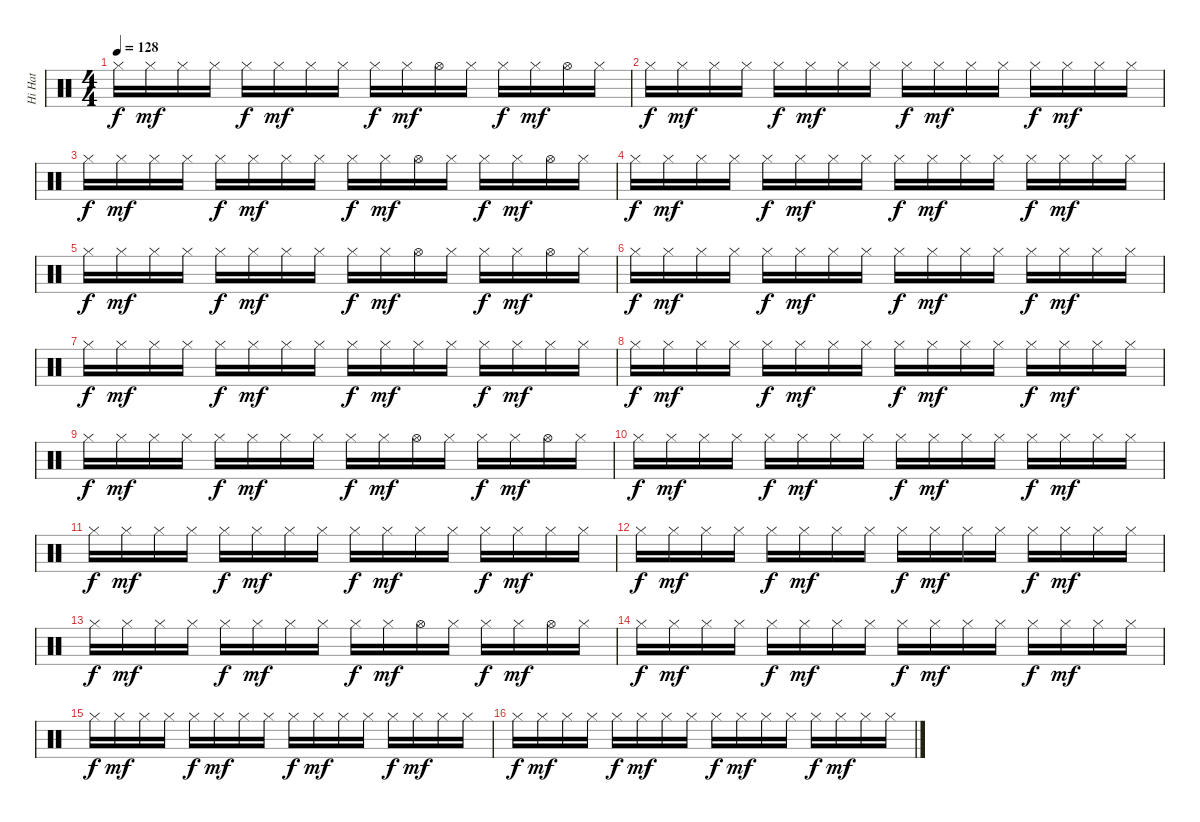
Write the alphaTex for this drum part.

\track ("Hi Hat" "Hi Hat") {instrument percussion}
\staff {score}
\articulation defaults
\ts (4 4)
\tempo 128
\clef neutral
\ks c "Hi-Hat (closed)".16{dy f} "Hi-Hat (closed)".16{dy mf} "Hi-Hat (closed)".16 "Hi-Hat (closed)".16 "Hi-Hat (closed)".16{dy f} "Hi-Hat (closed)".16{dy mf} "Hi-Hat (closed)".16 "Hi-Hat (closed)".16 "Hi-Hat (closed)".16{dy f} "Hi-Hat (closed)".16{dy mf} "Hi-Hat (open)".16 "Hi-Hat (closed)".16 "Hi-Hat (closed)".16{dy f} "Hi-Hat (closed)".16{dy mf} "Hi-Hat (open)".16 "Hi-Hat (closed)".16
|
"Hi-Hat (closed)".16{dy f} "Hi-Hat (closed)".16{dy mf} "Hi-Hat (closed)".16 "Hi-Hat (closed)".16 "Hi-Hat (closed)".16{dy f} "Hi-Hat (closed)".16{dy mf} "Hi-Hat (closed)".16 "Hi-Hat (closed)".16 "Hi-Hat (closed)".16{dy f} "Hi-Hat (closed)".16{dy mf} "Hi-Hat (closed)".16 "Hi-Hat (closed)".16 "Hi-Hat (closed)".16{dy f} "Hi-Hat (closed)".16{dy mf} "Hi-Hat (closed)".16 "Hi-Hat (closed)".16 |
"Hi-Hat (closed)".16{dy f} "Hi-Hat (closed)".16{dy mf} "Hi-Hat (closed)".16 "Hi-Hat (closed)".16 "Hi-Hat (closed)".16{dy f} "Hi-Hat (closed)".16{dy mf} "Hi-Hat (closed)".16 "Hi-Hat (closed)".16 "Hi-Hat (closed)".16{dy f} "Hi-Hat (closed)".16{dy mf} "Hi-Hat (open)".16 "Hi-Hat (closed)".16 "Hi-Hat (closed)".16{dy f} "Hi-Hat (closed)".16{dy mf} "Hi-Hat (open)".16 "Hi-Hat (closed)".16 |
"Hi-Hat (closed)".16{dy f} "Hi-Hat (closed)".16{dy mf} "Hi-Hat (closed)".16 "Hi-Hat (closed)".16 "Hi-Hat (closed)".16{dy f} "Hi-Hat (closed)".16{dy mf} "Hi-Hat (closed)".16 "Hi-Hat (closed)".16 "Hi-Hat (closed)".16{dy f} "Hi-Hat (closed)".16{dy mf} "Hi-Hat (closed)".16 "Hi-Hat (closed)".16 "Hi-Hat (closed)".16{dy f} "Hi-Hat (closed)".16{dy mf} "Hi-Hat (closed)".16 "Hi-Hat (closed)".16 |
"Hi-Hat (closed)".16{dy f} "Hi-Hat (closed)".16{dy mf} "Hi-Hat (closed)".16 "Hi-Hat (closed)".16 "Hi-Hat (closed)".16{dy f} "Hi-Hat (closed)".16{dy mf} "Hi-Hat (closed)".16 "Hi-Hat (closed)".16 "Hi-Hat (closed)".16{dy f} "Hi-Hat (closed)".16{dy mf} "Hi-Hat (open)".16 "Hi-Hat (closed)".16 "Hi-Hat (closed)".16{dy f} "Hi-Hat (closed)".16{dy mf} "Hi-Hat (open)".16 "Hi-Hat (closed)".16 |
"Hi-Hat (closed)".16{dy f} "Hi-Hat (closed)".16{dy mf} "Hi-Hat (closed)".16 "Hi-Hat (closed)".16 "Hi-Hat (closed)".16{dy f} "Hi-Hat (closed)".16{dy mf} "Hi-Hat (closed)".16 "Hi-Hat (closed)".16 "Hi-Hat (closed)".16{dy f} "Hi-Hat (closed)".16{dy mf} "Hi-Hat (closed)".16 "Hi-Hat (closed)".16 "Hi-Hat (closed)".16{dy f} "Hi-Hat (closed)".16{dy mf} "Hi-Hat (closed)".16 "Hi-Hat (closed)".16 |
"Hi-Hat (closed)".16{dy f} "Hi-Hat (closed)".16{dy mf} "Hi-Hat (closed)".16 "Hi-Hat (closed)".16 "Hi-Hat (closed)".16{dy f} "Hi-Hat (closed)".16{dy mf} "Hi-Hat (closed)".16 "Hi-Hat (closed)".16 "Hi-Hat (closed)".16{dy f} "Hi-Hat (closed)".16{dy mf} "Hi-Hat (closed)".16 "Hi-Hat (closed)".16 "Hi-Hat (closed)".16{dy f} "Hi-Hat (closed)".16{dy mf} "Hi-Hat (closed)".16 "Hi-Hat (closed)".16 |
"Hi-Hat (closed)".16{dy f} "Hi-Hat (closed)".16{dy mf} "Hi-Hat (closed)".16 "Hi-Hat (closed)".16 "Hi-Hat (closed)".16{dy f} "Hi-Hat (closed)".16{dy mf} "Hi-Hat (closed)".16 "Hi-Hat (closed)".16 "Hi-Hat (closed)".16{dy f} "Hi-Hat (closed)".16{dy mf} "Hi-Hat (closed)".16 "Hi-Hat (closed)".16 "Hi-Hat (closed)".16{dy f} "Hi-Hat (closed)".16{dy mf} "Hi-Hat (closed)".16 "Hi-Hat (closed)".16 |
"Hi-Hat (closed)".16{dy f} "Hi-Hat (closed)".16{dy mf} "Hi-Hat (closed)".16 "Hi-Hat (closed)".16 "Hi-Hat (closed)".16{dy f} "Hi-Hat (closed)".16{dy mf} "Hi-Hat (closed)".16 "Hi-Hat (closed)".16 "Hi-Hat (closed)".16{dy f} "Hi-Hat (closed)".16{dy mf} "Hi-Hat (open)".16 "Hi-Hat (closed)".16 "Hi-Hat (closed)".16{dy f} "Hi-Hat (closed)".16{dy mf} "Hi-Hat (open)".16 "Hi-Hat (closed)".16 |
"Hi-Hat (closed)".16{dy f} "Hi-Hat (closed)".16{dy mf} "Hi-Hat (closed)".16 "Hi-Hat (closed)".16 "Hi-Hat (closed)".16{dy f} "Hi-Hat (closed)".16{dy mf} "Hi-Hat (closed)".16 "Hi-Hat (closed)".16 "Hi-Hat (closed)".16{dy f} "Hi-Hat (closed)".16{dy mf} "Hi-Hat (closed)".16 "Hi-Hat (closed)".16 "Hi-Hat (closed)".16{dy f} "Hi-Hat (closed)".16{dy mf} "Hi-Hat (closed)".16 "Hi-Hat (closed)".16 |
"Hi-Hat (closed)".16{dy f} "Hi-Hat (closed)".16{dy mf} "Hi-Hat (closed)".16 "Hi-Hat (closed)".16 "Hi-Hat (closed)".16{dy f} "Hi-Hat (closed)".16{dy mf} "Hi-Hat (closed)".16 "Hi-Hat (closed)".16 "Hi-Hat (closed)".16{dy f} "Hi-Hat (closed)".16{dy mf} "Hi-Hat (closed)".16 "Hi-Hat (closed)".16 "Hi-Hat (closed)".16{dy f} "Hi-Hat (closed)".16{dy mf} "Hi-Hat (closed)".16 "Hi-Hat (closed)".16 |
"Hi-Hat (closed)".16{dy f} "Hi-Hat (closed)".16{dy mf} "Hi-Hat (closed)".16 "Hi-Hat (closed)".16 "Hi-Hat (closed)".16{dy f} "Hi-Hat (closed)".16{dy mf} "Hi-Hat (closed)".16 "Hi-Hat (closed)".16 "Hi-Hat (closed)".16{dy f} "Hi-Hat (closed)".16{dy mf} "Hi-Hat (closed)".16 "Hi-Hat (closed)".16 "Hi-Hat (closed)".16{dy f} "Hi-Hat (closed)".16{dy mf} "Hi-Hat (closed)".16 "Hi-Hat (closed)".16 |
"Hi-Hat (closed)".16{dy f} "Hi-Hat (closed)".16{dy mf} "Hi-Hat (closed)".16 "Hi-Hat (closed)".16 "Hi-Hat (closed)".16{dy f} "Hi-Hat (closed)".16{dy mf} "Hi-Hat (closed)".16 "Hi-Hat (closed)".16 "Hi-Hat (closed)".16{dy f} "Hi-Hat (closed)".16{dy mf} "Hi-Hat (open)".16 "Hi-Hat (closed)".16 "Hi-Hat (closed)".16{dy f} "Hi-Hat (closed)".16{dy mf} "Hi-Hat (open)".16 "Hi-Hat (closed)".16 |
"Hi-Hat (closed)".16{dy f} "Hi-Hat (closed)".16{dy mf} "Hi-Hat (closed)".16 "Hi-Hat (closed)".16 "Hi-Hat (closed)".16{dy f} "Hi-Hat (closed)".16{dy mf} "Hi-Hat (closed)".16 "Hi-Hat (closed)".16 "Hi-Hat (closed)".16{dy f} "Hi-Hat (closed)".16{dy mf} "Hi-Hat (closed)".16 "Hi-Hat (closed)".16 "Hi-Hat (closed)".16{dy f} "Hi-Hat (closed)".16{dy mf} "Hi-Hat (closed)".16 "Hi-Hat (closed)".16 |
"Hi-Hat (closed)".16{dy f} "Hi-Hat (closed)".16{dy mf} "Hi-Hat (closed)".16 "Hi-Hat (closed)".16 "Hi-Hat (closed)".16{dy f} "Hi-Hat (closed)".16{dy mf} "Hi-Hat (closed)".16 "Hi-Hat (closed)".16 "Hi-Hat (closed)".16{dy f} "Hi-Hat (closed)".16{dy mf} "Hi-Hat (closed)".16 "Hi-Hat (closed)".16 "Hi-Hat (closed)".16{dy f} "Hi-Hat (closed)".16{dy mf} "Hi-Hat (closed)".16 "Hi-Hat (closed)".16 |
"Hi-Hat (closed)".16{dy f} "Hi-Hat (closed)".16{dy mf} "Hi-Hat (closed)".16 "Hi-Hat (closed)".16 "Hi-Hat (closed)".16{dy f} "Hi-Hat (closed)".16{dy mf} "Hi-Hat (closed)".16 "Hi-Hat (closed)".16 "Hi-Hat (closed)".16{dy f} "Hi-Hat (closed)".16{dy mf} "Hi-Hat (closed)".16 "Hi-Hat (closed)".16 "Hi-Hat (closed)".16{dy f} "Hi-Hat (closed)".16{dy mf} "Hi-Hat (closed)".16 "Hi-Hat (closed)".16
